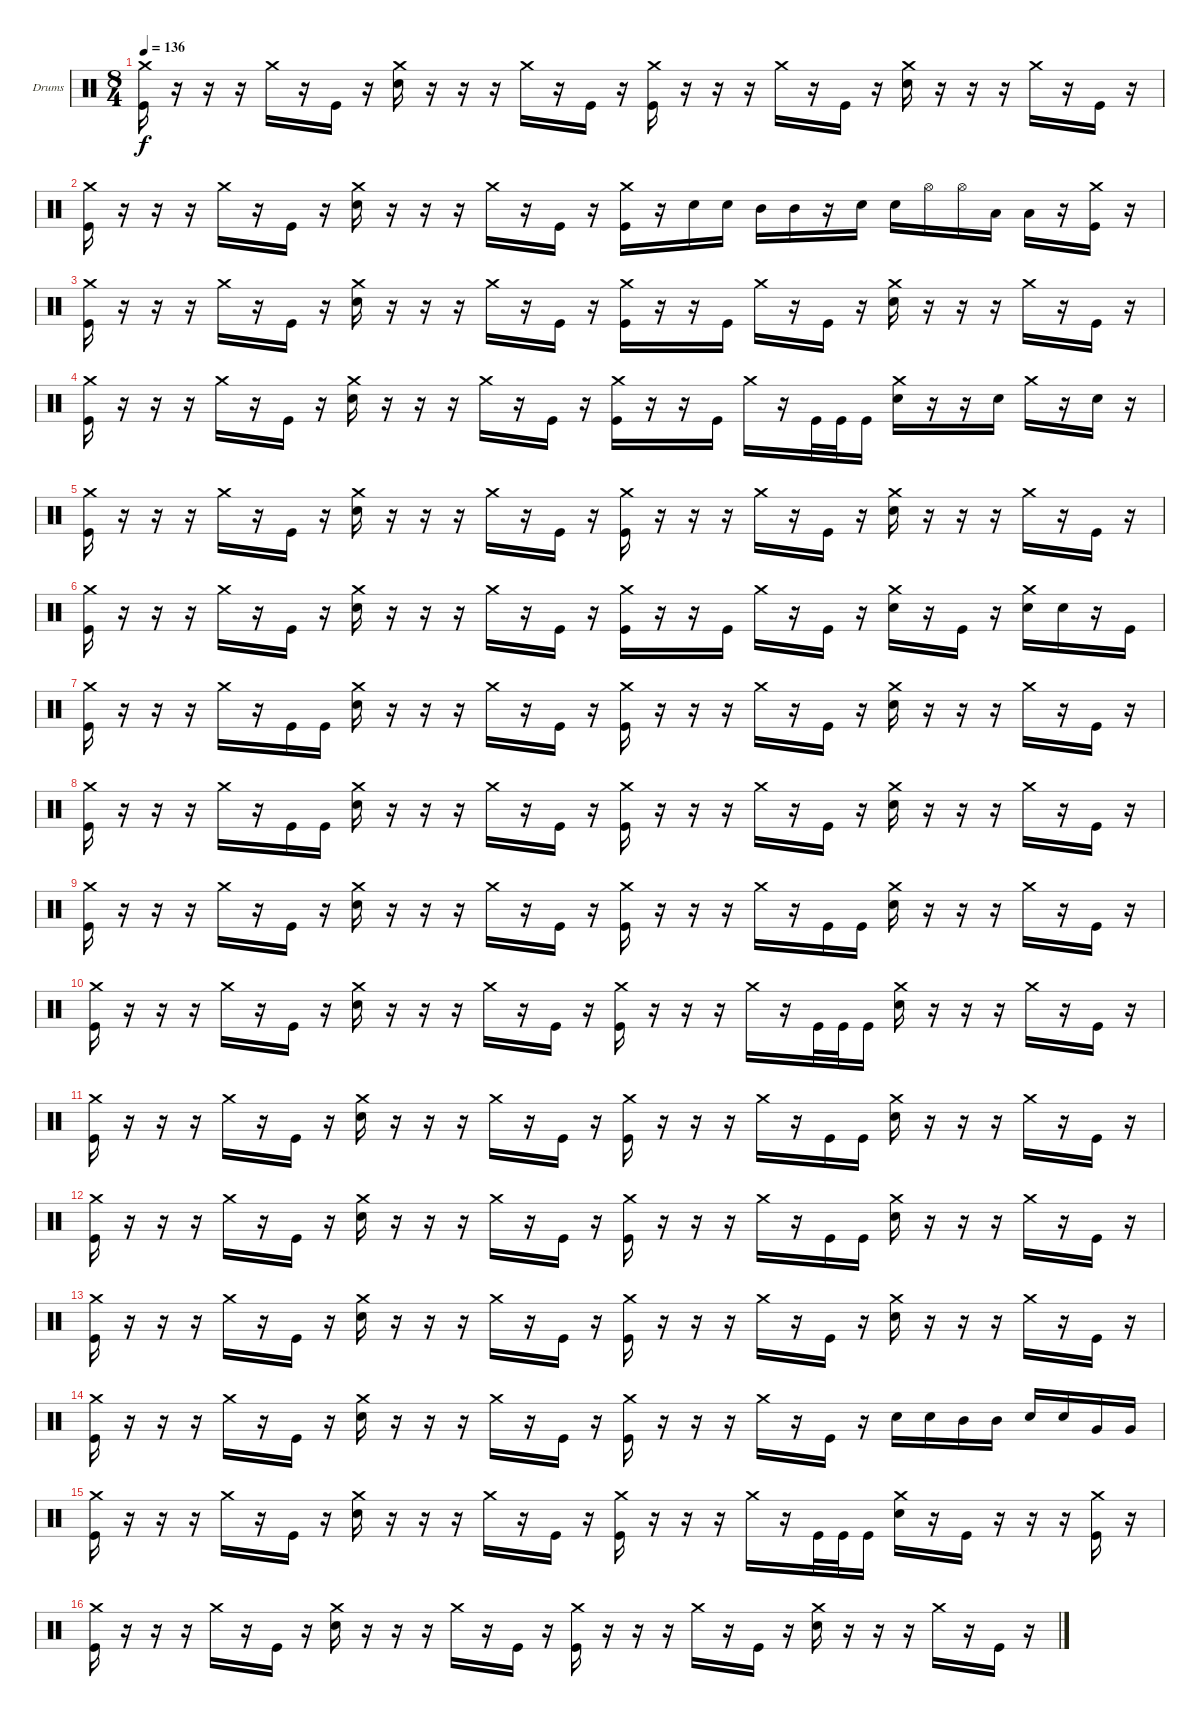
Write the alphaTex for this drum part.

\defaultSystemsLayout 4
\bracketExtendMode groupsimilarinstruments
\firstSystemTrackNameOrientation horizontal
\otherSystemsTrackNameOrientation horizontal
\track ("Drumkit" "Drums") {instrument percussion}
\staff {score}
\articulation defaults
\ts (8 4)
\tempo 136
\clef neutral
\ks c
("Kick (hit)" "Crash medium (hit)").16{dy f} r.16 r.16 r.16 "Crash medium (hit)".16 r.16 "Kick (hit)".16 r.16 ("Snare (hit) 2" "Crash medium (hit)").16 r.16 r.16 r.16 "Crash medium (hit)".16 r.16 "Kick (hit)".16 r.16 ("Kick (hit)" "Crash medium (hit)").16 r.16 r.16 r.16 "Crash medium (hit)".16 r.16 "Kick (hit)".16 r.16 ("Snare (hit) 2" "Crash medium (hit)").16 r.16 r.16 r.16 "Crash medium (hit)".16 r.16 "Kick (hit)".16 r.16 |
("Kick (hit)" "Crash medium (hit)").16 r.16 r.16 r.16 "Crash medium (hit)".16 r.16 "Kick (hit)".16 r.16 ("Snare (hit) 2" "Crash medium (hit)").16 r.16 r.16 r.16 "Crash medium (hit)".16 r.16 "Kick (hit)".16 r.16 ("Kick (hit)" "Crash medium (hit)").16 r.16 "Snare (hit) 2".16 "Snare (hit) 2".16 "Mid Tom (hit)".16 "Mid Tom (hit)".16 r.16 "Snare (hit) 2".16 "Snare (hit) 2".16 "Hi-Hat (open)".16 "Hi-Hat (open)".16 "Low Tom (hit)".16 "Low Tom (hit)".16 r.16 ("Kick (hit)" "Crash medium (hit)").16 r.16 |
("Kick (hit)" "Crash medium (hit)").16 r.16 r.16 r.16 "Crash medium (hit)".16 r.16 "Kick (hit)".16 r.16 ("Snare (hit) 2" "Crash medium (hit)").16 r.16 r.16 r.16 "Crash medium (hit)".16 r.16 "Kick (hit)".16 r.16 ("Kick (hit)" "Crash medium (hit)").16 r.16 r.16 "Kick (hit)".16 "Crash medium (hit)".16 r.16 "Kick (hit)".16 r.16 ("Snare (hit) 2" "Crash medium (hit)").16 r.16 r.16 r.16 "Crash medium (hit)".16 r.16 "Kick (hit)".16 r.16 |
("Kick (hit)" "Crash medium (hit)").16 r.16 r.16 r.16 "Crash medium (hit)".16 r.16 "Kick (hit)".16 r.16 ("Snare (hit) 2" "Crash medium (hit)").16 r.16 r.16 r.16 "Crash medium (hit)".16 r.16 "Kick (hit)".16 r.16 ("Kick (hit)" "Crash medium (hit)").16 r.16 r.16 "Kick (hit)".16 "Crash medium (hit)".16 r.16 "Kick (hit)".32 "Kick (hit)".32 "Kick (hit)".16 ("Snare (hit) 2" "Crash medium (hit)").16 r.16 r.16 "Snare (hit) 2".16 "Crash medium (hit)".16 r.16 "Snare (hit) 2".16 r.16 |
("Kick (hit)" "Crash medium (hit)").16 r.16 r.16 r.16 "Crash medium (hit)".16 r.16 "Kick (hit)".16 r.16 ("Snare (hit) 2" "Crash medium (hit)").16 r.16 r.16 r.16 "Crash medium (hit)".16 r.16 "Kick (hit)".16 r.16 ("Kick (hit)" "Crash medium (hit)").16 r.16 r.16 r.16 "Crash medium (hit)".16 r.16 "Kick (hit)".16 r.16 ("Snare (hit) 2" "Crash medium (hit)").16 r.16 r.16 r.16 "Crash medium (hit)".16 r.16 "Kick (hit)".16 r.16 |
("Kick (hit)" "Crash medium (hit)").16 r.16 r.16 r.16 "Crash medium (hit)".16 r.16 "Kick (hit)".16 r.16 ("Snare (hit) 2" "Crash medium (hit)").16 r.16 r.16 r.16 "Crash medium (hit)".16 r.16 "Kick (hit)".16 r.16 ("Kick (hit)" "Crash medium (hit)").16 r.16 r.16 "Kick (hit)".16 "Crash medium (hit)".16 r.16 "Kick (hit)".16 r.16 ("Snare (hit) 2" "Crash medium (hit)").16 r.16 "Kick (hit)".16 r.16 ("Crash medium (hit)" "Snare (hit) 2").16 "Snare (hit) 2".16 r.16 "Kick (hit)".16 |
("Kick (hit)" "Crash medium (hit)").16 r.16 r.16 r.16 "Crash medium (hit)".16 r.16 "Kick (hit)".16 "Kick (hit)".16 ("Snare (hit) 2" "Crash medium (hit)").16 r.16 r.16 r.16 "Crash medium (hit)".16 r.16 "Kick (hit)".16 r.16 ("Kick (hit)" "Crash medium (hit)").16 r.16 r.16 r.16 "Crash medium (hit)".16 r.16 "Kick (hit)".16 r.16 ("Snare (hit) 2" "Crash medium (hit)").16 r.16 r.16 r.16 "Crash medium (hit)".16 r.16 "Kick (hit)".16 r.16 |
("Kick (hit)" "Crash medium (hit)").16 r.16 r.16 r.16 "Crash medium (hit)".16 r.16 "Kick (hit)".16 "Kick (hit)".16 ("Snare (hit) 2" "Crash medium (hit)").16 r.16 r.16 r.16 "Crash medium (hit)".16 r.16 "Kick (hit)".16 r.16 ("Kick (hit)" "Crash medium (hit)").16 r.16 r.16 r.16 "Crash medium (hit)".16 r.16 "Kick (hit)".16 r.16 ("Snare (hit) 2" "Crash medium (hit)").16 r.16 r.16 r.16 "Crash medium (hit)".16 r.16 "Kick (hit)".16 r.16 |
("Kick (hit)" "Crash medium (hit)").16 r.16 r.16 r.16 "Crash medium (hit)".16 r.16 "Kick (hit)".16 r.16 ("Snare (hit) 2" "Crash medium (hit)").16 r.16 r.16 r.16 "Crash medium (hit)".16 r.16 "Kick (hit)".16 r.16 ("Kick (hit)" "Crash medium (hit)").16 r.16 r.16 r.16 "Crash medium (hit)".16 r.16 "Kick (hit)".16 "Kick (hit)".16 ("Snare (hit) 2" "Crash medium (hit)").16 r.16 r.16 r.16 "Crash medium (hit)".16 r.16 "Kick (hit)".16 r.16 |
("Kick (hit)" "Crash medium (hit)").16 r.16 r.16 r.16 "Crash medium (hit)".16 r.16 "Kick (hit)".16 r.16 ("Snare (hit) 2" "Crash medium (hit)").16 r.16 r.16 r.16 "Crash medium (hit)".16 r.16 "Kick (hit)".16 r.16 ("Kick (hit)" "Crash medium (hit)").16 r.16 r.16 r.16 "Crash medium (hit)".16 r.16 "Kick (hit)".32 "Kick (hit)".32 "Kick (hit)".16 ("Snare (hit) 2" "Crash medium (hit)").16 r.16 r.16 r.16 "Crash medium (hit)".16 r.16 "Kick (hit)".16 r.16 |
("Kick (hit)" "Crash medium (hit)").16 r.16 r.16 r.16 "Crash medium (hit)".16 r.16 "Kick (hit)".16 r.16 ("Snare (hit) 2" "Crash medium (hit)").16 r.16 r.16 r.16 "Crash medium (hit)".16 r.16 "Kick (hit)".16 r.16 ("Kick (hit)" "Crash medium (hit)").16 r.16 r.16 r.16 "Crash medium (hit)".16 r.16 "Kick (hit)".16 "Kick (hit)".16 ("Snare (hit) 2" "Crash medium (hit)").16 r.16 r.16 r.16 "Crash medium (hit)".16 r.16 "Kick (hit)".16 r.16 |
("Kick (hit)" "Crash medium (hit)").16 r.16 r.16 r.16 "Crash medium (hit)".16 r.16 "Kick (hit)".16 r.16 ("Snare (hit) 2" "Crash medium (hit)").16 r.16 r.16 r.16 "Crash medium (hit)".16 r.16 "Kick (hit)".16 r.16 ("Kick (hit)" "Crash medium (hit)").16 r.16 r.16 r.16 "Crash medium (hit)".16 r.16 "Kick (hit)".16 "Kick (hit)".16 ("Snare (hit) 2" "Crash medium (hit)").16 r.16 r.16 r.16 "Crash medium (hit)".16 r.16 "Kick (hit)".16 r.16 |
("Kick (hit)" "Crash medium (hit)").16 r.16 r.16 r.16 "Crash medium (hit)".16 r.16 "Kick (hit)".16 r.16 ("Snare (hit) 2" "Crash medium (hit)").16 r.16 r.16 r.16 "Crash medium (hit)".16 r.16 "Kick (hit)".16 r.16 ("Kick (hit)" "Crash medium (hit)").16 r.16 r.16 r.16 "Crash medium (hit)".16 r.16 "Kick (hit)".16 r.16 ("Snare (hit) 2" "Crash medium (hit)").16 r.16 r.16 r.16 "Crash medium (hit)".16 r.16 "Kick (hit)".16 r.16 |
("Kick (hit)" "Crash medium (hit)").16 r.16 r.16 r.16 "Crash medium (hit)".16 r.16 "Kick (hit)".16 r.16 ("Snare (hit) 2" "Crash medium (hit)").16 r.16 r.16 r.16 "Crash medium (hit)".16 r.16 "Kick (hit)".16 r.16 ("Kick (hit)" "Crash medium (hit)").16 r.16 r.16 r.16 "Crash medium (hit)".16 r.16 "Kick (hit)".16 r.16 "Snare (hit) 2".16 "Snare (hit) 2".16 "Mid Tom (hit)".16 "Mid Tom (hit)".16 "Snare (hit) 2".16 "Snare (hit) 2".16 "Very Low Tom (hit)".16 "Very Low Tom (hit)".16 |
("Kick (hit)" "Crash medium (hit)").16 r.16 r.16 r.16 "Crash medium (hit)".16 r.16 "Kick (hit)".16 r.16 ("Snare (hit) 2" "Crash medium (hit)").16 r.16 r.16 r.16 "Crash medium (hit)".16 r.16 "Kick (hit)".16 r.16 ("Kick (hit)" "Crash medium (hit)").16 r.16 r.16 r.16 "Crash medium (hit)".16 r.16 "Kick (hit)".32 "Kick (hit)".32 "Kick (hit)".16 ("Snare (hit) 2" "Crash medium (hit)").16 r.16 "Kick (hit)".16 r.16 r.16 r.16 ("Kick (hit)" "Crash medium (hit)").16 r.16 |
("Kick (hit)" "Crash medium (hit)").16 r.16 r.16 r.16 "Crash medium (hit)".16 r.16 "Kick (hit)".16 r.16 ("Snare (hit) 2" "Crash medium (hit)").16 r.16 r.16 r.16 "Crash medium (hit)".16 r.16 "Kick (hit)".16 r.16 ("Kick (hit)" "Crash medium (hit)").16 r.16 r.16 r.16 "Crash medium (hit)".16 r.16 "Kick (hit)".16 r.16 ("Snare (hit) 2" "Crash medium (hit)").16 r.16 r.16 r.16 "Crash medium (hit)".16 r.16 "Kick (hit)".16 r.16
